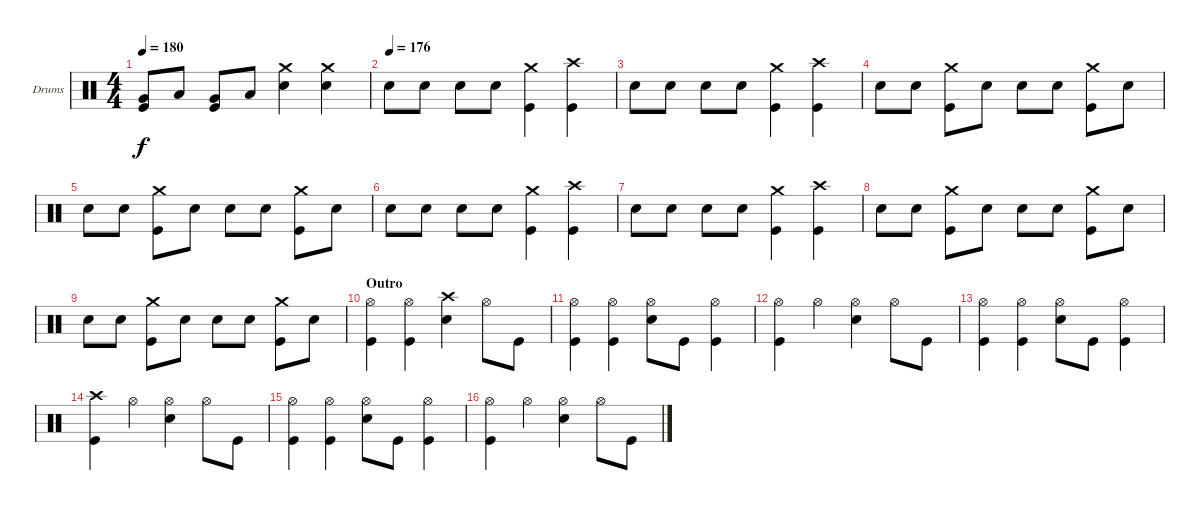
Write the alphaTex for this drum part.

\bracketExtendMode groupsimilarinstruments
\firstSystemTrackNameOrientation horizontal
\otherSystemsTrackNameOrientation horizontal
\track ("Drumkit" "Drums") {instrument percussion}
\staff {score}
\articulation defaults
\ts (4 4)
\tempo 180
\clef neutral
\ks c
("Very Low Tom (hit)" "Kick (hit)").8{dy f} "Low Tom (hit)".8 ("Very Low Tom (hit)" "Kick (hit)").8 "Low Tom (hit)".8 ("Crash medium (hit)" "Snare (hit) 2").4 ("Crash medium (hit)" "Snare (hit) 2").4 |
\tempo (176 0.00625)
"Snare (hit) 2".8 "Snare (hit) 2".8 "Snare (hit) 2".8 "Snare (hit) 2".8 ("Crash medium (hit)" "Kick (hit)").4 ("Crash high (hit)" "Kick (hit)").4 |
"Snare (hit) 2".8 "Snare (hit) 2".8 "Snare (hit) 2".8 "Snare (hit) 2".8 ("Crash medium (hit)" "Kick (hit)").4 ("Crash high (hit)" "Kick (hit)").4 |
"Snare (hit) 2".8 "Snare (hit) 2".8 ("Crash medium (hit)" "Kick (hit)").8 "Snare (hit) 2".8 "Snare (hit) 2".8 "Snare (hit) 2".8 ("Crash medium (hit)" "Kick (hit)").8 "Snare (hit) 2".8 |
"Snare (hit) 2".8 "Snare (hit) 2".8 ("Crash medium (hit)" "Kick (hit)").8 "Snare (hit) 2".8 "Snare (hit) 2".8 "Snare (hit) 2".8 ("Crash medium (hit)" "Kick (hit)").8 "Snare (hit) 2".8 |
"Snare (hit) 2".8 "Snare (hit) 2".8 "Snare (hit) 2".8 "Snare (hit) 2".8 ("Crash medium (hit)" "Kick (hit)").4 ("Crash high (hit)" "Kick (hit)").4 |
"Snare (hit) 2".8 "Snare (hit) 2".8 "Snare (hit) 2".8 "Snare (hit) 2".8 ("Crash medium (hit)" "Kick (hit)").4 ("Crash high (hit)" "Kick (hit)").4 |
"Snare (hit) 2".8 "Snare (hit) 2".8 ("Crash medium (hit)" "Kick (hit)").8 "Snare (hit) 2".8 "Snare (hit) 2".8 "Snare (hit) 2".8 ("Crash medium (hit)" "Kick (hit)").8 "Snare (hit) 2".8 |
"Snare (hit) 2".8 "Snare (hit) 2".8 ("Crash medium (hit)" "Kick (hit)").8 "Snare (hit) 2".8 "Snare (hit) 2".8 "Snare (hit) 2".8 ("Crash medium (hit)" "Kick (hit)").8 "Snare (hit) 2".8 |
\section ("" "Outro")
("Hi-Hat (open)" "Kick (hit)").4 ("Hi-Hat (open)" "Kick (hit)").4 ("Crash high (hit)" "Snare (hit) 2").4 "Hi-Hat (open)".8 "Kick (hit)".8 |
("Hi-Hat (open)" "Kick (hit)").4 ("Hi-Hat (open)" "Kick (hit)").4 ("Hi-Hat (open)" "Snare (hit) 2").8 "Kick (hit)".8 ("Hi-Hat (open)" "Kick (hit)").4 |
("Hi-Hat (open)" "Kick (hit)").4 "Hi-Hat (open)".4 ("Hi-Hat (open)" "Snare (hit) 2").4 "Hi-Hat (open)".8 "Kick (hit)".8 |
("Hi-Hat (open)" "Kick (hit)").4 ("Hi-Hat (open)" "Kick (hit)").4 ("Hi-Hat (open)" "Snare (hit) 2").8 "Kick (hit)".8 ("Hi-Hat (open)" "Kick (hit)").4 |
("Crash high (hit)" "Kick (hit)").4 "Hi-Hat (open)".4 ("Hi-Hat (open)" "Snare (hit) 2").4 "Hi-Hat (open)".8 "Kick (hit)".8 |
("Hi-Hat (open)" "Kick (hit)").4 ("Hi-Hat (open)" "Kick (hit)").4 ("Hi-Hat (open)" "Snare (hit) 2").8 "Kick (hit)".8 ("Hi-Hat (open)" "Kick (hit)").4 |
("Hi-Hat (open)" "Kick (hit)").4 "Hi-Hat (open)".4 ("Hi-Hat (open)" "Snare (hit) 2").4 "Hi-Hat (open)".8 "Kick (hit)".8
